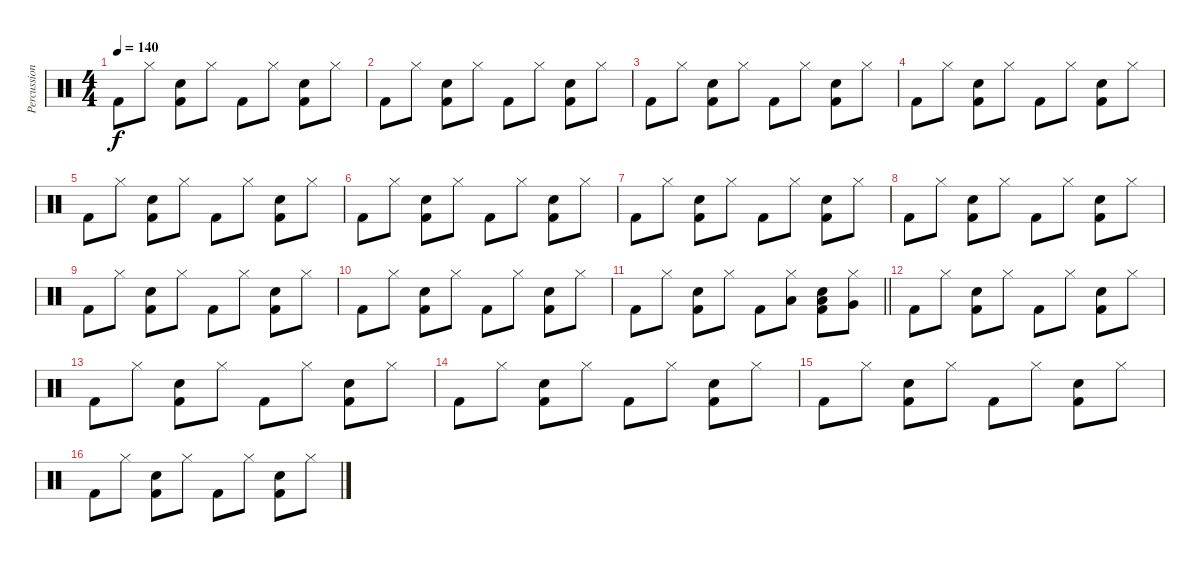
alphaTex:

\track ("Percussion" "Percussion") {instrument percussion}
\staff {score}
\articulation defaults
\ts (4 4)
\tempo 140
\clef neutral
\ks c "Kick (hit) 2".8{dy f} "Hi-Hat (closed)".8
("Electric Snare (hit)" "Kick (hit) 2").8 "Hi-Hat (closed)".8 "Kick (hit) 2".8 "Hi-Hat (closed)".8 ("Electric Snare (hit)" "Kick (hit) 2").8 "Hi-Hat (closed)".8 |
"Kick (hit) 2".8 "Hi-Hat (closed)".8 ("Electric Snare (hit)" "Kick (hit) 2").8 "Hi-Hat (closed)".8 "Kick (hit) 2".8 "Hi-Hat (closed)".8 ("Electric Snare (hit)" "Kick (hit) 2").8 "Hi-Hat (closed)".8 |
"Kick (hit) 2".8 "Hi-Hat (closed)".8 ("Electric Snare (hit)" "Kick (hit) 2").8 "Hi-Hat (closed)".8 "Kick (hit) 2".8 "Hi-Hat (closed)".8 ("Electric Snare (hit)" "Kick (hit) 2").8 "Hi-Hat (closed)".8 |
"Kick (hit) 2".8 "Hi-Hat (closed)".8 ("Electric Snare (hit)" "Kick (hit) 2").8 "Hi-Hat (closed)".8 "Kick (hit) 2".8 "Hi-Hat (closed)".8 ("Electric Snare (hit)" "Kick (hit) 2").8 "Hi-Hat (closed)".8 |
"Kick (hit) 2".8 "Hi-Hat (closed)".8 ("Electric Snare (hit)" "Kick (hit) 2").8 "Hi-Hat (closed)".8 "Kick (hit) 2".8 "Hi-Hat (closed)".8 ("Electric Snare (hit)" "Kick (hit) 2").8 "Hi-Hat (closed)".8 |
"Kick (hit) 2".8 "Hi-Hat (closed)".8 ("Electric Snare (hit)" "Kick (hit) 2").8 "Hi-Hat (closed)".8 "Kick (hit) 2".8 "Hi-Hat (closed)".8 ("Electric Snare (hit)" "Kick (hit) 2").8 "Hi-Hat (closed)".8 |
"Kick (hit) 2".8 "Hi-Hat (closed)".8 ("Electric Snare (hit)" "Kick (hit) 2").8 "Hi-Hat (closed)".8 "Kick (hit) 2".8 "Hi-Hat (closed)".8 ("Electric Snare (hit)" "Kick (hit) 2").8 "Hi-Hat (closed)".8 |
"Kick (hit) 2".8 "Hi-Hat (closed)".8 ("Electric Snare (hit)" "Kick (hit) 2").8 "Hi-Hat (closed)".8 "Kick (hit) 2".8 "Hi-Hat (closed)".8 ("Electric Snare (hit)" "Kick (hit) 2").8 "Hi-Hat (closed)".8 |
"Kick (hit) 2".8 "Hi-Hat (closed)".8 ("Electric Snare (hit)" "Kick (hit) 2").8 "Hi-Hat (closed)".8 "Kick (hit) 2".8 "Hi-Hat (closed)".8 ("Electric Snare (hit)" "Kick (hit) 2").8 "Hi-Hat (closed)".8 |
"Kick (hit) 2".8 "Hi-Hat (closed)".8 ("Electric Snare (hit)" "Kick (hit) 2").8 "Hi-Hat (closed)".8 "Kick (hit) 2".8 "Hi-Hat (closed)".8 ("Electric Snare (hit)" "Kick (hit) 2").8 "Hi-Hat (closed)".8 |
\barLineRight lightlight "Kick (hit) 2".8 "Hi-Hat (closed)".8
("Electric Snare (hit)" "Kick (hit) 2").8 "Hi-Hat (closed)".8 "Kick (hit) 2".8 ("Hi-Hat (closed)" "Low Tom (hit)").8 ("Low Tom (hit)" "Electric Snare (hit)" "Kick (hit) 2").8 ("Hi-Hat (closed)" "Very Low Tom (hit)").8 |
"Kick (hit) 2".8 "Hi-Hat (closed)".8 ("Electric Snare (hit)" "Kick (hit) 2").8 "Hi-Hat (closed)".8 "Kick (hit) 2".8 "Hi-Hat (closed)".8 ("Electric Snare (hit)" "Kick (hit) 2").8 "Hi-Hat (closed)".8 |
"Kick (hit) 2".8 "Hi-Hat (closed)".8 ("Electric Snare (hit)" "Kick (hit) 2").8 "Hi-Hat (closed)".8 "Kick (hit) 2".8 "Hi-Hat (closed)".8 ("Electric Snare (hit)" "Kick (hit) 2").8 "Hi-Hat (closed)".8 |
"Kick (hit) 2".8 "Hi-Hat (closed)".8 ("Electric Snare (hit)" "Kick (hit) 2").8 "Hi-Hat (closed)".8 "Kick (hit) 2".8 "Hi-Hat (closed)".8 ("Electric Snare (hit)" "Kick (hit) 2").8 "Hi-Hat (closed)".8 |
"Kick (hit) 2".8 "Hi-Hat (closed)".8 ("Electric Snare (hit)" "Kick (hit) 2").8 "Hi-Hat (closed)".8 "Kick (hit) 2".8 "Hi-Hat (closed)".8 ("Electric Snare (hit)" "Kick (hit) 2").8 "Hi-Hat (closed)".8 |
"Kick (hit) 2".8 "Hi-Hat (closed)".8 ("Electric Snare (hit)" "Kick (hit) 2").8 "Hi-Hat (closed)".8 "Kick (hit) 2".8 "Hi-Hat (closed)".8 ("Electric Snare (hit)" "Kick (hit) 2").8 "Hi-Hat (closed)".8
